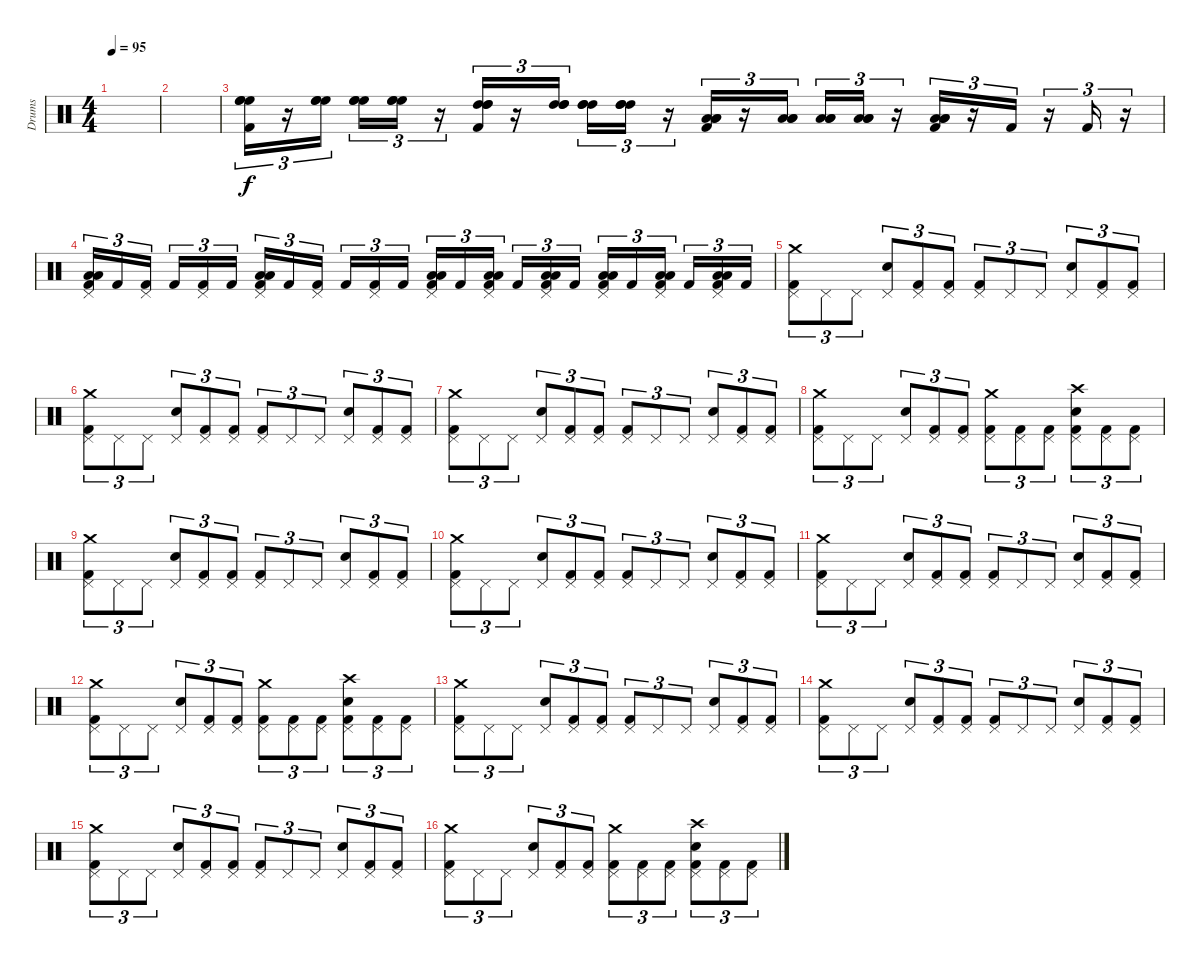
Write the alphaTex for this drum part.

\track ("Drums" "Drums") {instrument percussion}
\staff {score}
\articulation defaults
\ts (4 4)
\tempo 95
\clef neutral
\ks c
|
|
("Kick (hit) 2" "High Floor Tom (hit)" "High Floor Tom (hit)" "High Floor Tom (hit)").16{tu (3 2)} r.16{tu (3 2)} ("High Floor Tom (hit)" "High Floor Tom (hit)" "High Floor Tom (hit)").16{tu (3 2)} ("High Floor Tom (hit)" "High Floor Tom (hit)" "High Floor Tom (hit)").16{tu (3 2)} ("High Floor Tom (hit)" "High Floor Tom (hit)" "High Floor Tom (hit)").16{tu (3 2)} r.16{tu (3 2)} ("Kick (hit) 2" "High Tom (hit)" "High Tom (hit)" "High Tom (hit)").16{tu (3 2)} r.16{tu (3 2)} ("High Tom (hit)" "High Tom (hit)" "High Tom (hit)").16{tu (3 2)} ("High Tom (hit)" "High Tom (hit)" "High Tom (hit)").16{tu (3 2)} ("High Tom (hit)" "High Tom (hit)" "High Tom (hit)").16{tu (3 2)} r.16{tu (3 2)} ("Kick (hit) 2" "Low Tom (hit)" "Low Tom (hit)" "Low Tom (hit)").16{tu (3 2)} r.16{tu (3 2)} ("Low Tom (hit)" "Low Tom (hit)" "Low Tom (hit)").16{tu (3 2)} ("Low Tom (hit)" "Low Tom (hit)" "Low Tom (hit)").16{tu (3 2)} ("Low Tom (hit)" "Low Tom (hit)" "Low Tom (hit)").16{tu (3 2)} r.16{tu (3 2)} ("Kick (hit) 2" "Low Floor Tom (hit)" "Low Floor Tom (hit)" "Low Floor Tom (hit)").16{tu (3 2)} r.16{tu (3 2)} "Kick (hit) 2".16{tu (3 2)} r.16{tu (3 2)} "Kick (hit) 2".16{tu (3 2)} r.16{tu (3 2)} |
("Kick (hit) 2" "Low Tom (hit)" "Low Tom (hit)" "Pedal Hi-Hat (hit)").16{tu (3 2)} "Kick (hit) 2".16{tu (3 2)} ("Kick (hit) 2" "Pedal Hi-Hat (hit)").16{tu (3 2)} "Kick (hit) 2".16{tu (3 2)} ("Kick (hit) 2" "Pedal Hi-Hat (hit)").16{tu (3 2)} "Kick (hit) 2".16{tu (3 2)} ("Kick (hit) 2" "Low Tom (hit)" "Low Tom (hit)" "Pedal Hi-Hat (hit)").16{tu (3 2)} "Kick (hit) 2".16{tu (3 2)} ("Kick (hit) 2" "Pedal Hi-Hat (hit)").16{tu (3 2)} "Kick (hit) 2".16{tu (3 2)} ("Kick (hit) 2" "Pedal Hi-Hat (hit)").16{tu (3 2)} "Kick (hit) 2".16{tu (3 2)} ("Kick (hit) 2" "Low Tom (hit)" "Low Tom (hit)" "Pedal Hi-Hat (hit)").16{tu (3 2)} "Kick (hit) 2".16{tu (3 2)} ("Kick (hit) 2" "Low Tom (hit)" "Low Tom (hit)" "Pedal Hi-Hat (hit)").16{tu (3 2)} "Kick (hit) 2".16{tu (3 2)} ("Kick (hit) 2" "Low Tom (hit)" "Low Tom (hit)" "Pedal Hi-Hat (hit)").16{tu (3 2)} "Kick (hit) 2".16{tu (3 2)} ("Kick (hit) 2" "Low Floor Tom (hit)" "Low Floor Tom (hit)" "Pedal Hi-Hat (hit)").16{tu (3 2)} "Kick (hit) 2".16{tu (3 2)} ("Kick (hit) 2" "Low Floor Tom (hit)" "Low Floor Tom (hit)" "Pedal Hi-Hat (hit)").16{tu (3 2)} "Kick (hit) 2".16{tu (3 2)} ("Kick (hit) 2" "Low Floor Tom (hit)" "Low Floor Tom (hit)" "Pedal Hi-Hat (hit)").16{tu (3 2)} "Kick (hit) 2".16{tu (3 2)} |
("Kick (hit) 2" "Crash medium (hit)" "Pedal Hi-Hat (hit)").8{tu (3 2)} "Pedal Hi-Hat (hit)".8{tu (3 2)} "Pedal Hi-Hat (hit)".8{tu (3 2)} ("Snare (hit) 2" "Pedal Hi-Hat (hit)").8{tu (3 2)} ("Kick (hit) 2" "Pedal Hi-Hat (hit)").8{tu (3 2)} ("Kick (hit) 2" "Pedal Hi-Hat (hit)").8{tu (3 2)} ("Kick (hit) 2" "Pedal Hi-Hat (hit)").8{tu (3 2)} "Pedal Hi-Hat (hit)".8{tu (3 2)} "Pedal Hi-Hat (hit)".8{tu (3 2)} ("Snare (hit) 2" "Pedal Hi-Hat (hit)").8{tu (3 2)} ("Kick (hit) 2" "Pedal Hi-Hat (hit)").8{tu (3 2)} ("Kick (hit) 2" "Pedal Hi-Hat (hit)").8{tu (3 2)} |
("Kick (hit) 2" "Crash medium (hit)" "Pedal Hi-Hat (hit)").8{tu (3 2)} "Pedal Hi-Hat (hit)".8{tu (3 2)} "Pedal Hi-Hat (hit)".8{tu (3 2)} ("Snare (hit) 2" "Pedal Hi-Hat (hit)").8{tu (3 2)} ("Kick (hit) 2" "Pedal Hi-Hat (hit)").8{tu (3 2)} ("Kick (hit) 2" "Pedal Hi-Hat (hit)").8{tu (3 2)} ("Kick (hit) 2" "Pedal Hi-Hat (hit)").8{tu (3 2)} "Pedal Hi-Hat (hit)".8{tu (3 2)} "Pedal Hi-Hat (hit)".8{tu (3 2)} ("Snare (hit) 2" "Pedal Hi-Hat (hit)").8{tu (3 2)} ("Kick (hit) 2" "Pedal Hi-Hat (hit)").8{tu (3 2)} ("Kick (hit) 2" "Pedal Hi-Hat (hit)").8{tu (3 2)} |
("Kick (hit) 2" "Crash medium (hit)" "Pedal Hi-Hat (hit)").8{tu (3 2)} "Pedal Hi-Hat (hit)".8{tu (3 2)} "Pedal Hi-Hat (hit)".8{tu (3 2)} ("Snare (hit) 2" "Pedal Hi-Hat (hit)").8{tu (3 2)} ("Kick (hit) 2" "Pedal Hi-Hat (hit)").8{tu (3 2)} ("Kick (hit) 2" "Pedal Hi-Hat (hit)").8{tu (3 2)} ("Kick (hit) 2" "Pedal Hi-Hat (hit)").8{tu (3 2)} "Pedal Hi-Hat (hit)".8{tu (3 2)} "Pedal Hi-Hat (hit)".8{tu (3 2)} ("Snare (hit) 2" "Pedal Hi-Hat (hit)").8{tu (3 2)} ("Kick (hit) 2" "Pedal Hi-Hat (hit)").8{tu (3 2)} ("Kick (hit) 2" "Pedal Hi-Hat (hit)").8{tu (3 2)} |
("Kick (hit) 2" "Crash medium (hit)" "Pedal Hi-Hat (hit)").8{tu (3 2)} "Pedal Hi-Hat (hit)".8{tu (3 2)} "Pedal Hi-Hat (hit)".8{tu (3 2)} ("Snare (hit) 2" "Pedal Hi-Hat (hit)").8{tu (3 2)} ("Kick (hit) 2" "Pedal Hi-Hat (hit)").8{tu (3 2)} ("Kick (hit) 2" "Pedal Hi-Hat (hit)").8{tu (3 2)} ("Kick (hit) 2" "Crash medium (hit)" "Pedal Hi-Hat (hit)").8{tu (3 2)} ("Kick (hit) 2" "Pedal Hi-Hat (hit)").8{tu (3 2)} ("Kick (hit) 2" "Pedal Hi-Hat (hit)").8{tu (3 2)} ("Kick (hit) 2" "Crash high (hit)" "Snare (hit) 2" "Pedal Hi-Hat (hit)").8{tu (3 2)} ("Kick (hit) 2" "Pedal Hi-Hat (hit)").8{tu (3 2)} ("Kick (hit) 2" "Pedal Hi-Hat (hit)").8{tu (3 2)} |
("Kick (hit) 2" "Crash medium (hit)" "Pedal Hi-Hat (hit)").8{tu (3 2)} "Pedal Hi-Hat (hit)".8{tu (3 2)} "Pedal Hi-Hat (hit)".8{tu (3 2)} ("Snare (hit) 2" "Pedal Hi-Hat (hit)").8{tu (3 2)} ("Kick (hit) 2" "Pedal Hi-Hat (hit)").8{tu (3 2)} ("Kick (hit) 2" "Pedal Hi-Hat (hit)").8{tu (3 2)} ("Kick (hit) 2" "Pedal Hi-Hat (hit)").8{tu (3 2)} "Pedal Hi-Hat (hit)".8{tu (3 2)} "Pedal Hi-Hat (hit)".8{tu (3 2)} ("Snare (hit) 2" "Pedal Hi-Hat (hit)").8{tu (3 2)} ("Kick (hit) 2" "Pedal Hi-Hat (hit)").8{tu (3 2)} ("Kick (hit) 2" "Pedal Hi-Hat (hit)").8{tu (3 2)} |
("Kick (hit) 2" "Crash medium (hit)" "Pedal Hi-Hat (hit)").8{tu (3 2)} "Pedal Hi-Hat (hit)".8{tu (3 2)} "Pedal Hi-Hat (hit)".8{tu (3 2)} ("Snare (hit) 2" "Pedal Hi-Hat (hit)").8{tu (3 2)} ("Kick (hit) 2" "Pedal Hi-Hat (hit)").8{tu (3 2)} ("Kick (hit) 2" "Pedal Hi-Hat (hit)").8{tu (3 2)} ("Kick (hit) 2" "Pedal Hi-Hat (hit)").8{tu (3 2)} "Pedal Hi-Hat (hit)".8{tu (3 2)} "Pedal Hi-Hat (hit)".8{tu (3 2)} ("Snare (hit) 2" "Pedal Hi-Hat (hit)").8{tu (3 2)} ("Kick (hit) 2" "Pedal Hi-Hat (hit)").8{tu (3 2)} ("Kick (hit) 2" "Pedal Hi-Hat (hit)").8{tu (3 2)} |
("Kick (hit) 2" "Crash medium (hit)" "Pedal Hi-Hat (hit)").8{tu (3 2)} "Pedal Hi-Hat (hit)".8{tu (3 2)} "Pedal Hi-Hat (hit)".8{tu (3 2)} ("Snare (hit) 2" "Pedal Hi-Hat (hit)").8{tu (3 2)} ("Kick (hit) 2" "Pedal Hi-Hat (hit)").8{tu (3 2)} ("Kick (hit) 2" "Pedal Hi-Hat (hit)").8{tu (3 2)} ("Kick (hit) 2" "Pedal Hi-Hat (hit)").8{tu (3 2)} "Pedal Hi-Hat (hit)".8{tu (3 2)} "Pedal Hi-Hat (hit)".8{tu (3 2)} ("Snare (hit) 2" "Pedal Hi-Hat (hit)").8{tu (3 2)} ("Kick (hit) 2" "Pedal Hi-Hat (hit)").8{tu (3 2)} ("Kick (hit) 2" "Pedal Hi-Hat (hit)").8{tu (3 2)} |
("Kick (hit) 2" "Crash medium (hit)" "Pedal Hi-Hat (hit)").8{tu (3 2)} "Pedal Hi-Hat (hit)".8{tu (3 2)} "Pedal Hi-Hat (hit)".8{tu (3 2)} ("Snare (hit) 2" "Pedal Hi-Hat (hit)").8{tu (3 2)} ("Kick (hit) 2" "Pedal Hi-Hat (hit)").8{tu (3 2)} ("Kick (hit) 2" "Pedal Hi-Hat (hit)").8{tu (3 2)} ("Kick (hit) 2" "Crash medium (hit)" "Pedal Hi-Hat (hit)").8{tu (3 2)} ("Kick (hit) 2" "Pedal Hi-Hat (hit)").8{tu (3 2)} ("Kick (hit) 2" "Pedal Hi-Hat (hit)").8{tu (3 2)} ("Kick (hit) 2" "Crash high (hit)" "Snare (hit) 2" "Pedal Hi-Hat (hit)").8{tu (3 2)} ("Kick (hit) 2" "Pedal Hi-Hat (hit)").8{tu (3 2)} ("Kick (hit) 2" "Pedal Hi-Hat (hit)").8{tu (3 2)} |
("Kick (hit) 2" "Crash medium (hit)" "Pedal Hi-Hat (hit)").8{tu (3 2)} "Pedal Hi-Hat (hit)".8{tu (3 2)} "Pedal Hi-Hat (hit)".8{tu (3 2)} ("Snare (hit) 2" "Pedal Hi-Hat (hit)").8{tu (3 2)} ("Kick (hit) 2" "Pedal Hi-Hat (hit)").8{tu (3 2)} ("Kick (hit) 2" "Pedal Hi-Hat (hit)").8{tu (3 2)} ("Kick (hit) 2" "Pedal Hi-Hat (hit)").8{tu (3 2)} "Pedal Hi-Hat (hit)".8{tu (3 2)} "Pedal Hi-Hat (hit)".8{tu (3 2)} ("Snare (hit) 2" "Pedal Hi-Hat (hit)").8{tu (3 2)} ("Kick (hit) 2" "Pedal Hi-Hat (hit)").8{tu (3 2)} ("Kick (hit) 2" "Pedal Hi-Hat (hit)").8{tu (3 2)} |
("Kick (hit) 2" "Crash medium (hit)" "Pedal Hi-Hat (hit)").8{tu (3 2)} "Pedal Hi-Hat (hit)".8{tu (3 2)} "Pedal Hi-Hat (hit)".8{tu (3 2)} ("Snare (hit) 2" "Pedal Hi-Hat (hit)").8{tu (3 2)} ("Kick (hit) 2" "Pedal Hi-Hat (hit)").8{tu (3 2)} ("Kick (hit) 2" "Pedal Hi-Hat (hit)").8{tu (3 2)} ("Kick (hit) 2" "Pedal Hi-Hat (hit)").8{tu (3 2)} "Pedal Hi-Hat (hit)".8{tu (3 2)} "Pedal Hi-Hat (hit)".8{tu (3 2)} ("Snare (hit) 2" "Pedal Hi-Hat (hit)").8{tu (3 2)} ("Kick (hit) 2" "Pedal Hi-Hat (hit)").8{tu (3 2)} ("Kick (hit) 2" "Pedal Hi-Hat (hit)").8{tu (3 2)} |
("Kick (hit) 2" "Crash medium (hit)" "Pedal Hi-Hat (hit)").8{tu (3 2)} "Pedal Hi-Hat (hit)".8{tu (3 2)} "Pedal Hi-Hat (hit)".8{tu (3 2)} ("Snare (hit) 2" "Pedal Hi-Hat (hit)").8{tu (3 2)} ("Kick (hit) 2" "Pedal Hi-Hat (hit)").8{tu (3 2)} ("Kick (hit) 2" "Pedal Hi-Hat (hit)").8{tu (3 2)} ("Kick (hit) 2" "Pedal Hi-Hat (hit)").8{tu (3 2)} "Pedal Hi-Hat (hit)".8{tu (3 2)} "Pedal Hi-Hat (hit)".8{tu (3 2)} ("Snare (hit) 2" "Pedal Hi-Hat (hit)").8{tu (3 2)} ("Kick (hit) 2" "Pedal Hi-Hat (hit)").8{tu (3 2)} ("Kick (hit) 2" "Pedal Hi-Hat (hit)").8{tu (3 2)} |
("Kick (hit) 2" "Crash medium (hit)" "Pedal Hi-Hat (hit)").8{tu (3 2)} "Pedal Hi-Hat (hit)".8{tu (3 2)} "Pedal Hi-Hat (hit)".8{tu (3 2)} ("Snare (hit) 2" "Pedal Hi-Hat (hit)").8{tu (3 2)} ("Kick (hit) 2" "Pedal Hi-Hat (hit)").8{tu (3 2)} ("Kick (hit) 2" "Pedal Hi-Hat (hit)").8{tu (3 2)} ("Kick (hit) 2" "Crash medium (hit)" "Pedal Hi-Hat (hit)").8{tu (3 2)} ("Kick (hit) 2" "Pedal Hi-Hat (hit)").8{tu (3 2)} ("Kick (hit) 2" "Pedal Hi-Hat (hit)").8{tu (3 2)} ("Kick (hit) 2" "Crash high (hit)" "Snare (hit) 2" "Pedal Hi-Hat (hit)").8{tu (3 2)} ("Kick (hit) 2" "Pedal Hi-Hat (hit)").8{tu (3 2)} ("Kick (hit) 2" "Pedal Hi-Hat (hit)").8{tu (3 2)}
